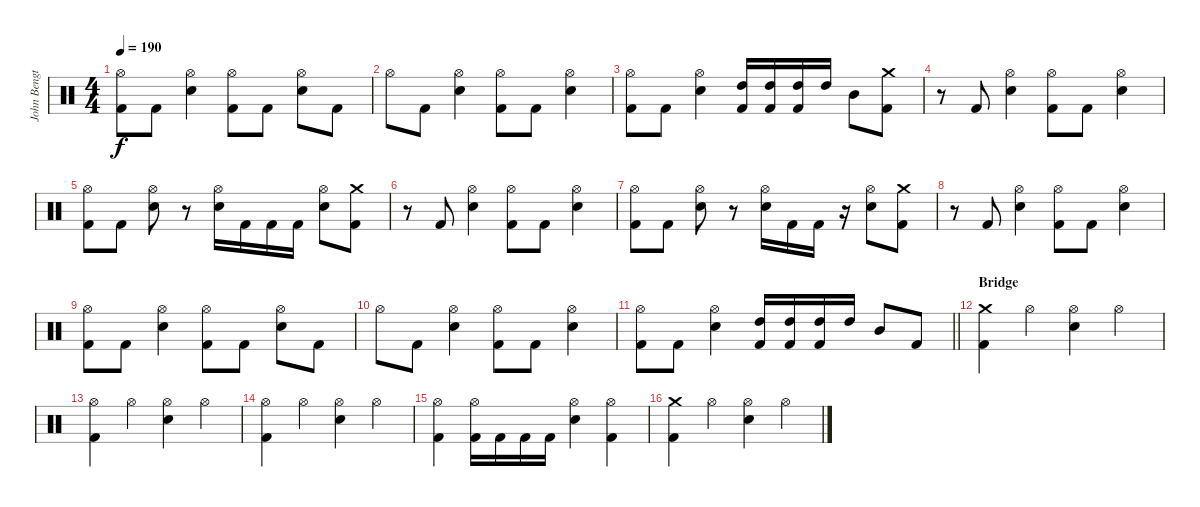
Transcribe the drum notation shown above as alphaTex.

\track ("John Bengtsson" "John Bengt") {instrument percussion}
\staff {score}
\articulation defaults
\ts (4 4)
\tempo 190
\clef neutral
\ks c
("Hi-Hat (open)" "Kick (hit) 2").8{dy f} "Kick (hit) 2".8 ("Hi-Hat (open)" "Electric Snare (hit)").4 ("Hi-Hat (open)" "Kick (hit) 2").8 "Kick (hit) 2".8 ("Hi-Hat (open)" "Electric Snare (hit)").8 "Kick (hit) 2".8 |
"Hi-Hat (open)".8 "Kick (hit) 2".8 ("Hi-Hat (open)" "Electric Snare (hit)").4 ("Hi-Hat (open)" "Kick (hit) 2").8 "Kick (hit) 2".8 ("Hi-Hat (open)" "Electric Snare (hit)").4 |
("Hi-Hat (open)" "Kick (hit) 2").8 "Kick (hit) 2".8 ("Hi-Hat (open)" "Electric Snare (hit)").4 ("High Tom (hit)" "Kick (hit) 2").16 ("High Tom (hit)" "Kick (hit) 2").16 ("High Tom (hit)" "Kick (hit) 2").16 "High Tom (hit)".16 "Mid Tom (hit)".8 ("Crash medium (hit)" "Kick (hit) 2").8 |
r.8 "Kick (hit) 2".8 ("Hi-Hat (open)" "Electric Snare (hit)").4 ("Hi-Hat (open)" "Kick (hit) 2").8 "Kick (hit) 2".8 ("Hi-Hat (open)" "Electric Snare (hit)").4 |
("Hi-Hat (open)" "Kick (hit) 2").8 "Kick (hit) 2".8 ("Hi-Hat (open)" "Electric Snare (hit)").8 r.8 ("Hi-Hat (open)" "Electric Snare (hit)").16 "Kick (hit) 2".16 "Kick (hit) 2".16 "Kick (hit) 2".16 ("Hi-Hat (open)" "Electric Snare (hit)").8 ("Crash medium (hit)" "Kick (hit) 2").8 |
r.8 "Kick (hit) 2".8 ("Hi-Hat (open)" "Electric Snare (hit)").4 ("Hi-Hat (open)" "Kick (hit) 2").8 "Kick (hit) 2".8 ("Hi-Hat (open)" "Electric Snare (hit)").4 |
("Hi-Hat (open)" "Kick (hit) 2").8 "Kick (hit) 2".8 ("Hi-Hat (open)" "Electric Snare (hit)").8 r.8 ("Hi-Hat (open)" "Electric Snare (hit)").16 "Kick (hit) 2".16 "Kick (hit) 2".16 r.16 ("Hi-Hat (open)" "Electric Snare (hit)").8 ("Crash medium (hit)" "Kick (hit) 2").8 |
r.8 "Kick (hit) 2".8 ("Hi-Hat (open)" "Electric Snare (hit)").4 ("Hi-Hat (open)" "Kick (hit) 2").8 "Kick (hit) 2".8 ("Hi-Hat (open)" "Electric Snare (hit)").4 |
("Hi-Hat (open)" "Kick (hit) 2").8 "Kick (hit) 2".8 ("Hi-Hat (open)" "Electric Snare (hit)").4 ("Hi-Hat (open)" "Kick (hit) 2").8 "Kick (hit) 2".8 ("Hi-Hat (open)" "Electric Snare (hit)").8 "Kick (hit) 2".8 |
"Hi-Hat (open)".8 "Kick (hit) 2".8 ("Hi-Hat (open)" "Electric Snare (hit)").4 ("Hi-Hat (open)" "Kick (hit) 2").8 "Kick (hit) 2".8 ("Hi-Hat (open)" "Electric Snare (hit)").4 |
\barLineRight lightlight
("Hi-Hat (open)" "Kick (hit) 2").8 "Kick (hit) 2".8 ("Hi-Hat (open)" "Electric Snare (hit)").4 ("High Tom (hit)" "Kick (hit) 2").16 ("High Tom (hit)" "Kick (hit) 2").16 ("High Tom (hit)" "Kick (hit) 2").16 "High Tom (hit)".16 "Mid Tom (hit)".8 "Kick (hit) 2".8 |
\section ("" "Bridge")
("Crash medium (hit)" "Kick (hit) 2").4 "Hi-Hat (open)".4 ("Hi-Hat (open)" "Electric Snare (hit)").4 "Hi-Hat (open)".4 |
("Hi-Hat (open)" "Kick (hit) 2").4 "Hi-Hat (open)".4 ("Hi-Hat (open)" "Electric Snare (hit)").4 "Hi-Hat (open)".4 |
("Hi-Hat (open)" "Kick (hit) 2").4 "Hi-Hat (open)".4 ("Hi-Hat (open)" "Electric Snare (hit)").4 "Hi-Hat (open)".4 |
("Hi-Hat (open)" "Kick (hit) 2").4 ("Hi-Hat (open)" "Kick (hit) 2").16 "Kick (hit) 2".16 "Kick (hit) 2".16 "Kick (hit) 2".16 ("Hi-Hat (open)" "Electric Snare (hit)").4 ("Hi-Hat (open)" "Kick (hit) 2").4 |
("Crash medium (hit)" "Kick (hit) 2").4 "Hi-Hat (open)".4 ("Hi-Hat (open)" "Electric Snare (hit)").4 "Hi-Hat (open)".4
